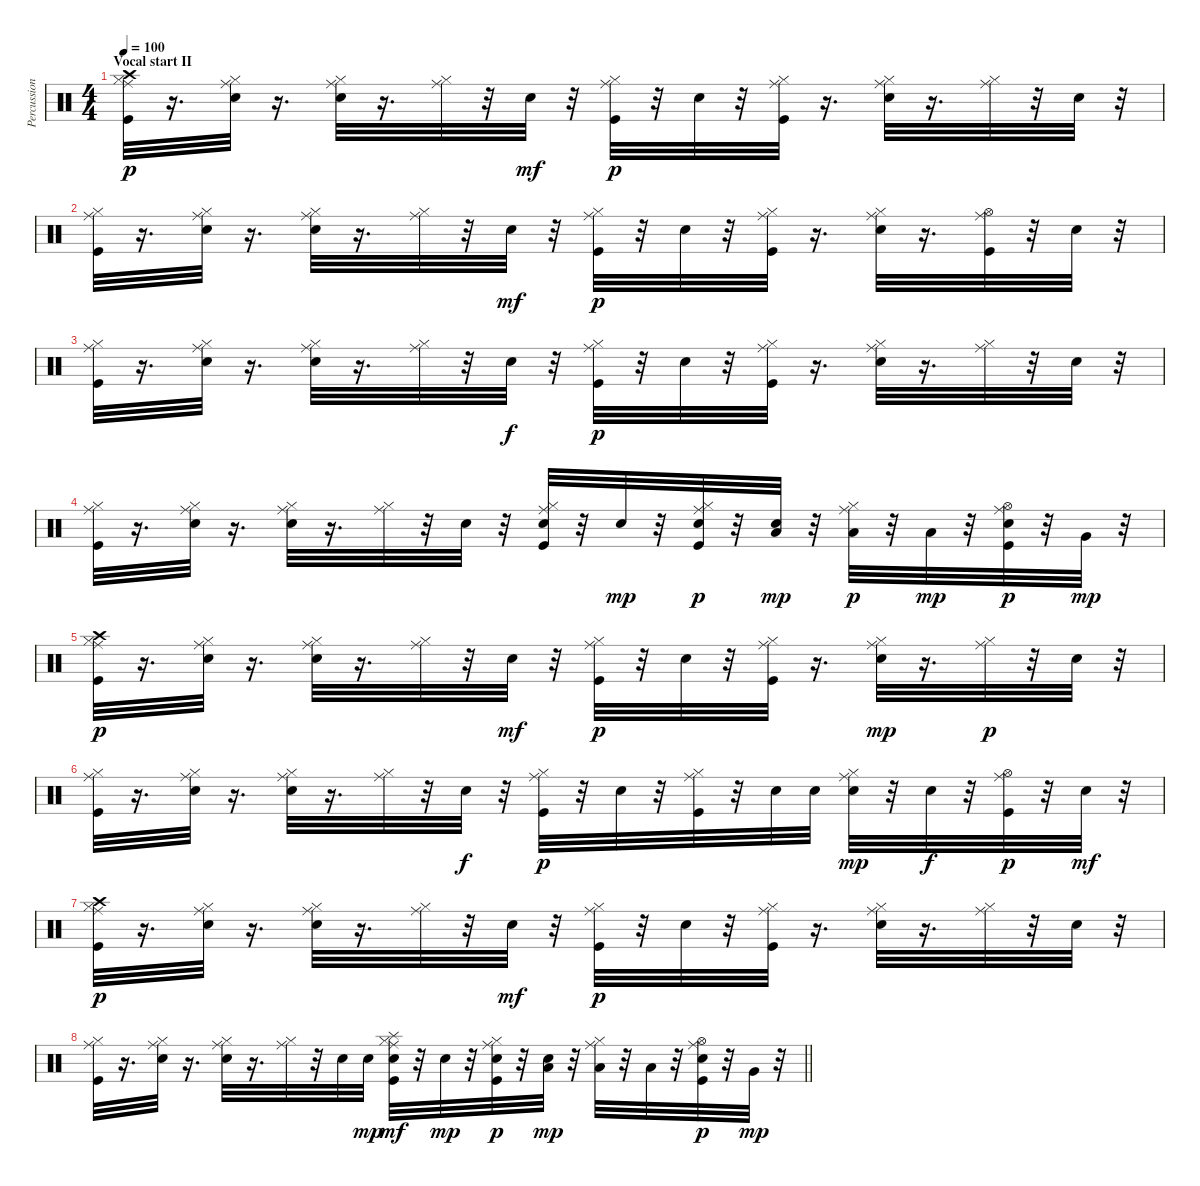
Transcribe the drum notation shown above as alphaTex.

\track ("Percussions" "Percussion") {instrument percussion}
\staff {score}
\articulation defaults
\ts (4 4)
\section ("" "Vocal start II")
\tempo 100
\clef neutral
\ks c
("Kick (hit)" "Hi-Hat (closed)" "Crash high (hit)" "Ride (middle)").32{dy p} r.16{d} ("Electric Snare (hit)" "Hi-Hat (closed)" "Ride (middle)").32 r.16{d} ("Electric Snare (hit)" "Hi-Hat (closed)" "Ride (middle)").32 r.16{d} ("Hi-Hat (closed)" "Ride (middle)").32 r.32 "Electric Snare (hit)".32{dy mf} r.32 ("Kick (hit)" "Hi-Hat (closed)" "Ride (middle)").32{dy p} r.32 "Electric Snare (hit)".32 r.32 ("Kick (hit)" "Hi-Hat (closed)" "Ride (middle)").32 r.16{d} ("Electric Snare (hit)" "Hi-Hat (closed)" "Ride (middle)").32 r.16{d} ("Hi-Hat (closed)" "Ride (middle)").32 r.32 "Electric Snare (hit)".32 r.32 |
("Kick (hit)" "Hi-Hat (closed)" "Ride (middle)").32 r.16{d} ("Electric Snare (hit)" "Hi-Hat (closed)" "Ride (middle)").32 r.16{d} ("Electric Snare (hit)" "Hi-Hat (closed)" "Ride (middle)").32 r.16{d} ("Hi-Hat (closed)" "Ride (middle)").32 r.32 "Electric Snare (hit)".32{dy mf} r.32 ("Kick (hit)" "Hi-Hat (closed)" "Ride (middle)").32{dy p} r.32 "Electric Snare (hit)".32 r.32 ("Kick (hit)" "Hi-Hat (closed)" "Ride (middle)").32 r.16{d} ("Electric Snare (hit)" "Hi-Hat (closed)" "Ride (middle)").32 r.16{d} ("Kick (hit)" "Hi-Hat (open)" "Ride (middle)").32 r.32 "Electric Snare (hit)".32 r.32 |
("Kick (hit)" "Hi-Hat (closed)" "Ride (middle)").32 r.16{d} ("Electric Snare (hit)" "Hi-Hat (closed)" "Ride (middle)").32 r.16{d} ("Electric Snare (hit)" "Hi-Hat (closed)" "Ride (middle)").32 r.16{d} ("Hi-Hat (closed)" "Ride (middle)").32 r.32 "Electric Snare (hit)".32{dy f} r.32 ("Kick (hit)" "Hi-Hat (closed)" "Ride (middle)").32{dy p} r.32 "Electric Snare (hit)".32 r.32 ("Kick (hit)" "Hi-Hat (closed)" "Ride (middle)").32 r.16{d} ("Electric Snare (hit)" "Hi-Hat (closed)" "Ride (middle)").32 r.16{d} ("Hi-Hat (closed)" "Ride (middle)").32 r.32 "Electric Snare (hit)".32 r.32 |
("Kick (hit)" "Hi-Hat (closed)" "Ride (middle)").32 r.16{d} ("Electric Snare (hit)" "Hi-Hat (closed)" "Ride (middle)").32 r.16{d} ("Electric Snare (hit)" "Hi-Hat (closed)" "Ride (middle)").32 r.16{d} ("Hi-Hat (closed)" "Ride (middle)").32 r.32 "Electric Snare (hit)".32 r.32 ("Kick (hit)" "Electric Snare (hit)" "Hi-Hat (closed)" "Ride (middle)").32 r.32 "Electric Snare (hit)".32{dy mp} r.32 ("Kick (hit)" "Electric Snare (hit)" "Hi-Hat (closed)" "Ride (middle)").32{dy p} r.32 ("Electric Snare (hit)" "Low Tom (hit)").32{dy mp} r.32 ("Hi-Hat (closed)" "Low Tom (hit)" "Ride (middle)").32{dy p} r.32 "Low Tom (hit)".32{dy mp} r.32 ("Kick (hit)" "Electric Snare (hit)" "Hi-Hat (open)" "Ride (middle)").32{dy p} r.32 "Very Low Tom (hit)".32{dy mp} r.32 |
("Kick (hit)" "Hi-Hat (closed)" "Crash high (hit)" "Ride (middle)").32{dy p} r.16{d} ("Electric Snare (hit)" "Hi-Hat (closed)" "Ride (middle)").32 r.16{d} ("Electric Snare (hit)" "Hi-Hat (closed)" "Ride (middle)").32 r.16{d} ("Hi-Hat (closed)" "Ride (middle)").32 r.32 "Electric Snare (hit)".32{dy mf} r.32 ("Kick (hit)" "Hi-Hat (closed)" "Ride (middle)").32{dy p} r.32 "Electric Snare (hit)".32 r.32 ("Kick (hit)" "Hi-Hat (closed)" "Ride (middle)").32 r.16{d} ("Electric Snare (hit)" "Hi-Hat (closed)" "Ride (middle)").32{dy mp} r.16{d} ("Hi-Hat (closed)" "Ride (middle)").32{dy p} r.32 "Electric Snare (hit)".32 r.32 |
("Kick (hit)" "Hi-Hat (closed)" "Ride (middle)").32 r.16{d} ("Electric Snare (hit)" "Hi-Hat (closed)" "Ride (middle)").32 r.16{d} ("Electric Snare (hit)" "Hi-Hat (closed)" "Ride (middle)").32 r.16{d} ("Hi-Hat (closed)" "Ride (middle)").32 r.32 "Electric Snare (hit)".32{dy f} r.32 ("Kick (hit)" "Hi-Hat (closed)" "Ride (middle)").32{dy p} r.32 "Electric Snare (hit)".32 r.32 ("Kick (hit)" "Hi-Hat (closed)" "Ride (middle)").32 r.32 "Electric Snare (hit)".32 "Electric Snare (hit)".32 ("Electric Snare (hit)" "Hi-Hat (closed)" "Ride (middle)").32{dy mp} r.32 "Electric Snare (hit)".32{dy f} r.32 ("Kick (hit)" "Hi-Hat (open)" "Ride (middle)").32{dy p} r.32 "Electric Snare (hit)".32{dy mf} r.32 |
("Kick (hit)" "Hi-Hat (closed)" "Crash high (hit)" "Ride (middle)").32{dy p} r.16{d} ("Electric Snare (hit)" "Hi-Hat (closed)" "Ride (middle)").32 r.16{d} ("Electric Snare (hit)" "Hi-Hat (closed)" "Ride (middle)").32 r.16{d} ("Hi-Hat (closed)" "Ride (middle)").32 r.32 "Electric Snare (hit)".32{dy mf} r.32 ("Kick (hit)" "Hi-Hat (closed)" "Ride (middle)").32{dy p} r.32 "Electric Snare (hit)".32 r.32 ("Kick (hit)" "Hi-Hat (closed)" "Ride (middle)").32 r.16{d} ("Electric Snare (hit)" "Hi-Hat (closed)" "Ride (middle)").32 r.16{d} ("Hi-Hat (closed)" "Ride (middle)").32 r.32 "Electric Snare (hit)".32 r.32 |
\barLineRight lightlight
("Kick (hit)" "Hi-Hat (closed)" "Ride (middle)").32 r.16{d} ("Electric Snare (hit)" "Hi-Hat (closed)" "Ride (middle)").32 r.16{d} ("Electric Snare (hit)" "Hi-Hat (closed)" "Ride (middle)").32 r.16{d} ("Hi-Hat (closed)" "Ride (middle)").32 r.32 "Electric Snare (hit)".32 "Electric Snare (hit)".32{dy mp} ("Kick (hit)" "Electric Snare (hit)" "Hi-Hat (closed)" "Ride (middle)" "Splash (hit)").32{dy mf} r.32 "Electric Snare (hit)".32{dy mp} r.32 ("Kick (hit)" "Electric Snare (hit)" "Hi-Hat (closed)" "Ride (middle)").32{dy p} r.32 ("Electric Snare (hit)" "Low Tom (hit)").32{dy mp} r.32 ("Hi-Hat (closed)" "Low Tom (hit)" "Ride (middle)").32 r.32 "Low Tom (hit)".32 r.32 ("Kick (hit)" "Electric Snare (hit)" "Hi-Hat (open)" "Ride (middle)").32{dy p} r.32 "Very Low Tom (hit)".32{dy mp} r.32
